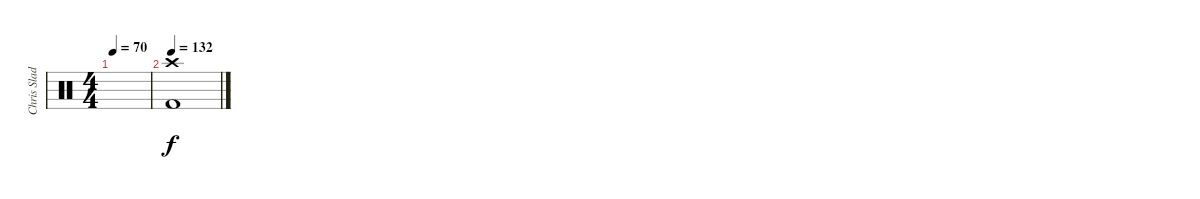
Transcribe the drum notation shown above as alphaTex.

\track ("Chris Slade" "Chris Slad") {instrument percussion}
\staff {score}
\articulation defaults
\ts (4 4)
\tempo 70
\clef neutral
\ks c
|
\tempo 132
("Kick (hit) 2" "Crash high (hit)").1
